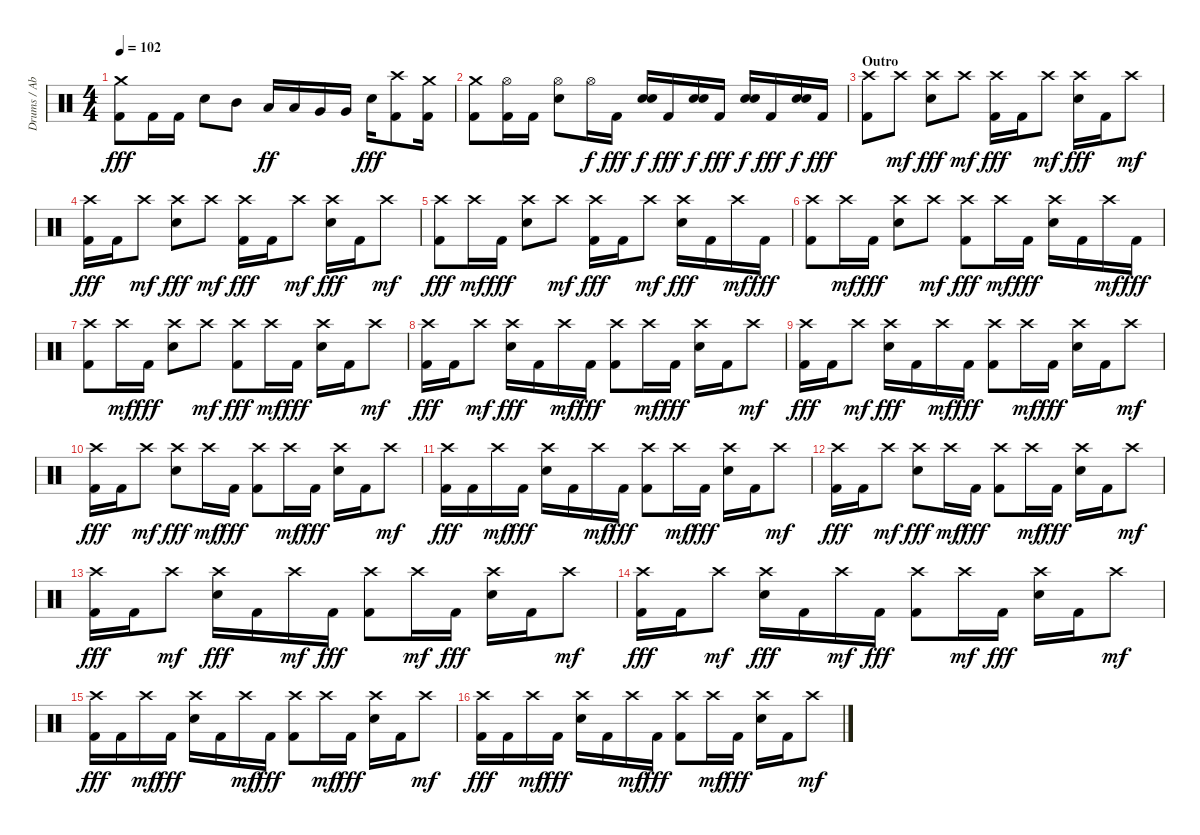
\track ("Drums / Abe Cunningham" "Drums / Ab") {instrument percussion}
\staff {score}
\articulation defaults
\ts (4 4)
\tempo 102
\clef neutral
\ks c
("Crash medium (hit)" "Kick (hit) 2").8{dy fff} "Kick (hit) 2".16 "Kick (hit) 2".16 "Electric Snare (hit)".8 "Mid Tom (hit)".8 "Low Tom (hit)".16{dy ff} "Low Tom (hit)".16 "Very Low Tom (hit)".16 "Very Low Tom (hit)".16 "Electric Snare (hit)".16{dy fff} ("Crash high (hit)" "Kick (hit) 2").8 ("Crash medium (hit)" "Kick (hit) 2").16 |
("Crash medium (hit)" "Kick (hit) 2").8 ("Hi-Hat (open)" "Kick (hit) 2").16 "Kick (hit) 2".16 ("Hi-Hat (open)" "Electric Snare (hit)").8 "Hi-Hat (open)".16{dy f} "Kick (hit) 2".16{dy fff} ("Electric Snare (hit)" "Electric Snare (hit)").16{dy f} "Kick (hit) 2".16{dy fff} ("Electric Snare (hit)" "Electric Snare (hit)").16{dy f} "Kick (hit) 2".16{dy fff} ("Electric Snare (hit)" "Electric Snare (hit)").16{dy f} "Kick (hit) 2".16{dy fff} ("Electric Snare (hit)" "Electric Snare (hit)").16{dy f} "Kick (hit) 2".16{dy fff} |
\section ("" "Outro")
("Crash high (hit)" "Kick (hit) 2").8 "Crash high (hit)".8{dy mf} ("Crash high (hit)" "Electric Snare (hit)").8{dy fff} "Crash high (hit)".8{dy mf} ("Crash high (hit)" "Kick (hit) 2").16{dy fff} "Kick (hit) 2".16 "Crash high (hit)".8{dy mf} ("Crash high (hit)" "Electric Snare (hit)").16{dy fff} "Kick (hit) 2".16 "Crash high (hit)".8{dy mf} |
("Crash high (hit)" "Kick (hit) 2").16{dy fff} "Kick (hit) 2".16 "Crash high (hit)".8{dy mf} ("Crash high (hit)" "Electric Snare (hit)").8{dy fff} "Crash high (hit)".8{dy mf} ("Crash high (hit)" "Kick (hit) 2").16{dy fff} "Kick (hit) 2".16 "Crash high (hit)".8{dy mf} ("Crash high (hit)" "Electric Snare (hit)").16{dy fff} "Kick (hit) 2".16 "Crash high (hit)".8{dy mf} |
("Crash high (hit)" "Kick (hit) 2").8{dy fff} "Crash high (hit)".16{dy mf} "Kick (hit) 2".16{dy fff} ("Crash high (hit)" "Electric Snare (hit)").8 "Crash high (hit)".8{dy mf} ("Crash high (hit)" "Kick (hit) 2").16{dy fff} "Kick (hit) 2".16 "Crash high (hit)".8{dy mf} ("Crash high (hit)" "Electric Snare (hit)").16{dy fff} "Kick (hit) 2".16 "Crash high (hit)".16{dy mf} "Kick (hit) 2".16{dy fff} |
("Crash high (hit)" "Kick (hit) 2").8 "Crash high (hit)".16{dy mf} "Kick (hit) 2".16{dy fff} ("Crash high (hit)" "Electric Snare (hit)").8 "Crash high (hit)".8{dy mf} ("Crash high (hit)" "Kick (hit) 2").8{dy fff} "Crash high (hit)".16{dy mf} "Kick (hit) 2".16{dy fff} ("Crash high (hit)" "Electric Snare (hit)").16 "Kick (hit) 2".16 "Crash high (hit)".16{dy mf} "Kick (hit) 2".16{dy fff} |
("Crash high (hit)" "Kick (hit) 2").8 "Crash high (hit)".16{dy mf} "Kick (hit) 2".16{dy fff} ("Crash high (hit)" "Electric Snare (hit)").8 "Crash high (hit)".8{dy mf} ("Crash high (hit)" "Kick (hit) 2").8{dy fff} "Crash high (hit)".16{dy mf} "Kick (hit) 2".16{dy fff} ("Crash high (hit)" "Electric Snare (hit)").16 "Kick (hit) 2".16 "Crash high (hit)".8{dy mf} |
("Crash high (hit)" "Kick (hit) 2").16{dy fff} "Kick (hit) 2".16 "Crash high (hit)".8{dy mf} ("Crash high (hit)" "Electric Snare (hit)").16{dy fff} "Kick (hit) 2".16 "Crash high (hit)".16{dy mf} "Kick (hit) 2".16{dy fff} ("Crash high (hit)" "Kick (hit) 2").8 "Crash high (hit)".16{dy mf} "Kick (hit) 2".16{dy fff} ("Crash high (hit)" "Electric Snare (hit)").16 "Kick (hit) 2".16 "Crash high (hit)".8{dy mf} |
("Crash high (hit)" "Kick (hit) 2").16{dy fff} "Kick (hit) 2".16 "Crash high (hit)".8{dy mf} ("Crash high (hit)" "Electric Snare (hit)").16{dy fff} "Kick (hit) 2".16 "Crash high (hit)".16{dy mf} "Kick (hit) 2".16{dy fff} ("Crash high (hit)" "Kick (hit) 2").8 "Crash high (hit)".16{dy mf} "Kick (hit) 2".16{dy fff} ("Crash high (hit)" "Electric Snare (hit)").16 "Kick (hit) 2".16 "Crash high (hit)".8{dy mf} |
("Crash high (hit)" "Kick (hit) 2").16{dy fff} "Kick (hit) 2".16 "Crash high (hit)".8{dy mf} ("Crash high (hit)" "Electric Snare (hit)").8{dy fff} "Crash high (hit)".16{dy mf} "Kick (hit) 2".16{dy fff} ("Crash high (hit)" "Kick (hit) 2").8 "Crash high (hit)".16{dy mf} "Kick (hit) 2".16{dy fff} ("Crash high (hit)" "Electric Snare (hit)").16 "Kick (hit) 2".16 "Crash high (hit)".8{dy mf} |
("Crash high (hit)" "Kick (hit) 2").16{dy fff} "Kick (hit) 2".16 "Crash high (hit)".16{dy mf} "Kick (hit) 2".16{dy fff} ("Crash high (hit)" "Electric Snare (hit)").16 "Kick (hit) 2".16 "Crash high (hit)".16{dy mf} "Kick (hit) 2".16{dy fff} ("Crash high (hit)" "Kick (hit) 2").8 "Crash high (hit)".16{dy mf} "Kick (hit) 2".16{dy fff} ("Crash high (hit)" "Electric Snare (hit)").16 "Kick (hit) 2".16 "Crash high (hit)".8{dy mf} |
("Crash high (hit)" "Kick (hit) 2").16{dy fff} "Kick (hit) 2".16 "Crash high (hit)".8{dy mf} ("Crash high (hit)" "Electric Snare (hit)").8{dy fff} "Crash high (hit)".16{dy mf} "Kick (hit) 2".16{dy fff} ("Crash high (hit)" "Kick (hit) 2").8 "Crash high (hit)".16{dy mf} "Kick (hit) 2".16{dy fff} ("Crash high (hit)" "Electric Snare (hit)").16 "Kick (hit) 2".16 "Crash high (hit)".8{dy mf} |
("Crash high (hit)" "Kick (hit) 2").16{dy fff} "Kick (hit) 2".16 "Crash high (hit)".8{dy mf} ("Crash high (hit)" "Electric Snare (hit)").16{dy fff} "Kick (hit) 2".16 "Crash high (hit)".16{dy mf} "Kick (hit) 2".16{dy fff} ("Crash high (hit)" "Kick (hit) 2").8 "Crash high (hit)".16{dy mf} "Kick (hit) 2".16{dy fff} ("Crash high (hit)" "Electric Snare (hit)").16 "Kick (hit) 2".16 "Crash high (hit)".8{dy mf} |
("Crash high (hit)" "Kick (hit) 2").16{dy fff} "Kick (hit) 2".16 "Crash high (hit)".8{dy mf} ("Crash high (hit)" "Electric Snare (hit)").16{dy fff} "Kick (hit) 2".16 "Crash high (hit)".16{dy mf} "Kick (hit) 2".16{dy fff} ("Crash high (hit)" "Kick (hit) 2").8 "Crash high (hit)".16{dy mf} "Kick (hit) 2".16{dy fff} ("Crash high (hit)" "Electric Snare (hit)").16 "Kick (hit) 2".16 "Crash high (hit)".8{dy mf} |
("Crash high (hit)" "Kick (hit) 2").16{dy fff} "Kick (hit) 2".16 "Crash high (hit)".16{dy mf} "Kick (hit) 2".16{dy fff} ("Crash high (hit)" "Electric Snare (hit)").16 "Kick (hit) 2".16 "Crash high (hit)".16{dy mf} "Kick (hit) 2".16{dy fff} ("Crash high (hit)" "Kick (hit) 2").8 "Crash high (hit)".16{dy mf} "Kick (hit) 2".16{dy fff} ("Crash high (hit)" "Electric Snare (hit)").16 "Kick (hit) 2".16 "Crash high (hit)".8{dy mf} |
("Crash high (hit)" "Kick (hit) 2").16{dy fff} "Kick (hit) 2".16 "Crash high (hit)".16{dy mf} "Kick (hit) 2".16{dy fff} ("Crash high (hit)" "Electric Snare (hit)").16 "Kick (hit) 2".16 "Crash high (hit)".16{dy mf} "Kick (hit) 2".16{dy fff} ("Crash high (hit)" "Kick (hit) 2").8 "Crash high (hit)".16{dy mf} "Kick (hit) 2".16{dy fff} ("Crash high (hit)" "Electric Snare (hit)").16 "Kick (hit) 2".16 "Crash high (hit)".8{dy mf}
